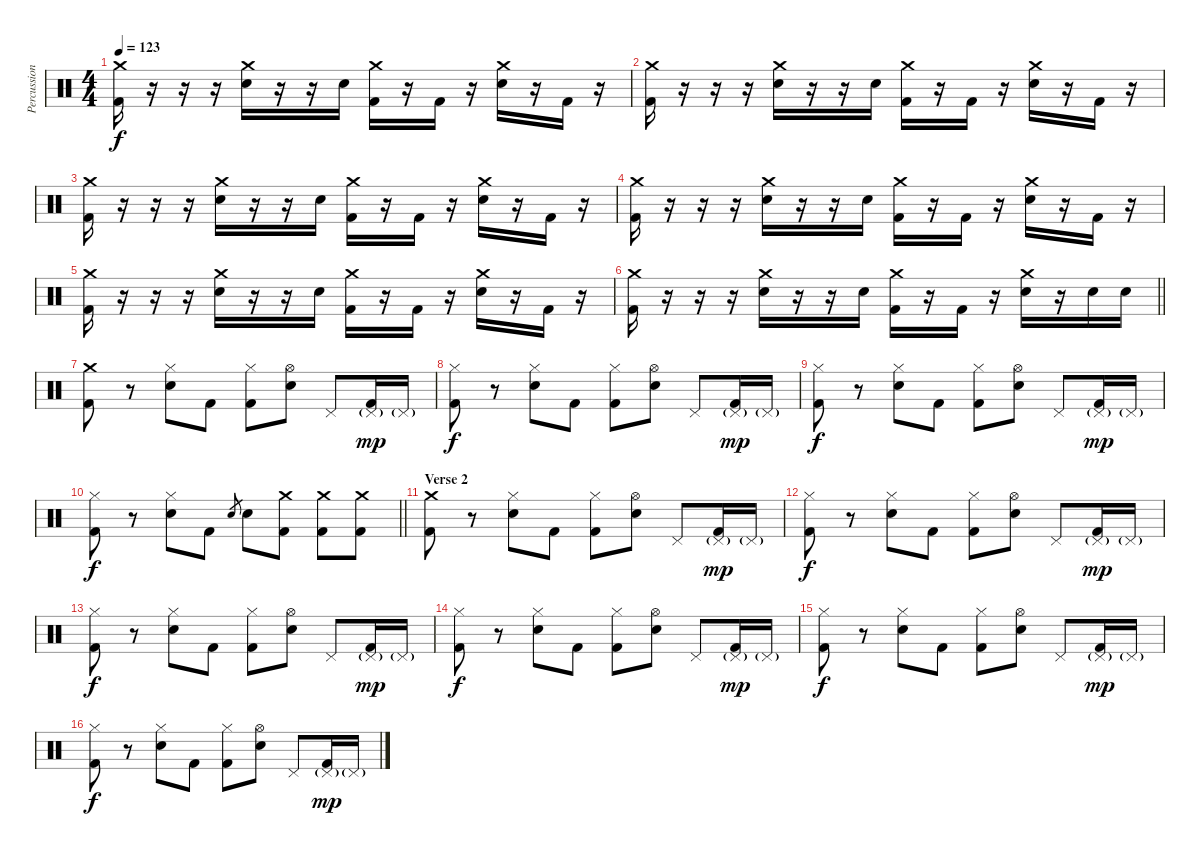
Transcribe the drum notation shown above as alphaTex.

\track ("Percussion" "Percussion") {instrument percussion}
\staff {score}
\articulation defaults
\ts (4 4)
\tempo 123
\clef neutral
\ks c
("Crash medium (hit)" "Kick (hit) 2").16{dy f} r.16 r.16 r.16 ("Crash medium (hit)" "Electric Snare (hit)").16 r.16 r.16 "Electric Snare (hit)".16 ("Crash medium (hit)" "Kick (hit) 2").16 r.16 "Kick (hit) 2".16 r.16 ("Crash medium (hit)" "Electric Snare (hit)").16 r.16 "Kick (hit) 2".16 r.16 |
("Crash medium (hit)" "Kick (hit) 2").16 r.16 r.16 r.16 ("Crash medium (hit)" "Electric Snare (hit)").16 r.16 r.16 "Electric Snare (hit)".16 ("Crash medium (hit)" "Kick (hit) 2").16 r.16 "Kick (hit) 2".16 r.16 ("Crash medium (hit)" "Electric Snare (hit)").16 r.16 "Kick (hit) 2".16 r.16 |
("Crash medium (hit)" "Kick (hit) 2").16 r.16 r.16 r.16 ("Crash medium (hit)" "Electric Snare (hit)").16 r.16 r.16 "Electric Snare (hit)".16 ("Crash medium (hit)" "Kick (hit) 2").16 r.16 "Kick (hit) 2".16 r.16 ("Crash medium (hit)" "Electric Snare (hit)").16 r.16 "Kick (hit) 2".16 r.16 |
("Crash medium (hit)" "Kick (hit) 2").16 r.16 r.16 r.16 ("Crash medium (hit)" "Electric Snare (hit)").16 r.16 r.16 "Electric Snare (hit)".16 ("Crash medium (hit)" "Kick (hit) 2").16 r.16 "Kick (hit) 2".16 r.16 ("Crash medium (hit)" "Electric Snare (hit)").16 r.16 "Kick (hit) 2".16 r.16 |
("Crash medium (hit)" "Kick (hit) 2").16 r.16 r.16 r.16 ("Crash medium (hit)" "Electric Snare (hit)").16 r.16 r.16 "Electric Snare (hit)".16 ("Crash medium (hit)" "Kick (hit) 2").16 r.16 "Kick (hit) 2".16 r.16 ("Crash medium (hit)" "Electric Snare (hit)").16 r.16 "Kick (hit) 2".16 r.16 |
\barLineRight lightlight
("Crash medium (hit)" "Kick (hit) 2").16 r.16 r.16 r.16 ("Crash medium (hit)" "Electric Snare (hit)").16 r.16 r.16 "Electric Snare (hit)".16 ("Crash medium (hit)" "Kick (hit) 2").16 r.16 "Kick (hit) 2".16 r.16 ("Crash medium (hit)" "Electric Snare (hit)").16 r.16 "Electric Snare (hit)".16 "Electric Snare (hit)".16 |
\section ("" "")
("Crash medium (hit)" "Kick (hit) 2").8 r.8 ("Hi-Hat (closed)" "Electric Snare (hit)").8 "Kick (hit) 2".8 ("Hi-Hat (closed)" "Kick (hit) 2").8 ("Hi-Hat (open)" "Electric Snare (hit)").8 "Pedal Hi-Hat (hit)".8 ("Pedal Hi-Hat (hit)"{g} "Kick (hit) 2").16{dy mp} "Pedal Hi-Hat (hit)"{g}.16 |
("Hi-Hat (closed)" "Kick (hit) 2").8{dy f} r.8 ("Hi-Hat (closed)" "Electric Snare (hit)").8 "Kick (hit) 2".8 ("Hi-Hat (closed)" "Kick (hit) 2").8 ("Hi-Hat (open)" "Electric Snare (hit)").8 "Pedal Hi-Hat (hit)".8 ("Pedal Hi-Hat (hit)"{g} "Kick (hit) 2").16{dy mp} "Pedal Hi-Hat (hit)"{g}.16 |
("Hi-Hat (closed)" "Kick (hit) 2").8{dy f} r.8 ("Hi-Hat (closed)" "Electric Snare (hit)").8 "Kick (hit) 2".8 ("Hi-Hat (closed)" "Kick (hit) 2").8 ("Hi-Hat (open)" "Electric Snare (hit)").8 "Pedal Hi-Hat (hit)".8 ("Pedal Hi-Hat (hit)"{g} "Kick (hit) 2").16{dy mp} "Pedal Hi-Hat (hit)"{g}.16 |
\barLineRight lightlight
("Hi-Hat (closed)" "Kick (hit) 2").8{dy f} r.8 ("Hi-Hat (closed)" "Electric Snare (hit)").8 "Kick (hit) 2".8 "Electric Snare (hit)".8{gr} "Electric Snare (hit)".8 ("Crash medium (hit)" "Kick (hit) 2").8 ("Crash medium (hit)" "Kick (hit) 2").8 ("Crash medium (hit)" "Kick (hit) 2").8 |
\section ("" "Verse 2")
("Crash medium (hit)" "Kick (hit) 2").8 r.8 ("Hi-Hat (closed)" "Electric Snare (hit)").8 "Kick (hit) 2".8 ("Hi-Hat (closed)" "Kick (hit) 2").8 ("Hi-Hat (open)" "Electric Snare (hit)").8 "Pedal Hi-Hat (hit)".8 ("Pedal Hi-Hat (hit)"{g} "Kick (hit) 2").16{dy mp} "Pedal Hi-Hat (hit)"{g}.16 |
("Hi-Hat (closed)" "Kick (hit) 2").8{dy f} r.8 ("Hi-Hat (closed)" "Electric Snare (hit)").8 "Kick (hit) 2".8 ("Hi-Hat (closed)" "Kick (hit) 2").8 ("Hi-Hat (open)" "Electric Snare (hit)").8 "Pedal Hi-Hat (hit)".8 ("Pedal Hi-Hat (hit)"{g} "Kick (hit) 2").16{dy mp} "Pedal Hi-Hat (hit)"{g}.16 |
("Hi-Hat (closed)" "Kick (hit) 2").8{dy f} r.8 ("Hi-Hat (closed)" "Electric Snare (hit)").8 "Kick (hit) 2".8 ("Hi-Hat (closed)" "Kick (hit) 2").8 ("Hi-Hat (open)" "Electric Snare (hit)").8 "Pedal Hi-Hat (hit)".8 ("Pedal Hi-Hat (hit)"{g} "Kick (hit) 2").16{dy mp} "Pedal Hi-Hat (hit)"{g}.16 |
("Hi-Hat (closed)" "Kick (hit) 2").8{dy f} r.8 ("Hi-Hat (closed)" "Electric Snare (hit)").8 "Kick (hit) 2".8 ("Hi-Hat (closed)" "Kick (hit) 2").8 ("Hi-Hat (open)" "Electric Snare (hit)").8 "Pedal Hi-Hat (hit)".8 ("Pedal Hi-Hat (hit)"{g} "Kick (hit) 2").16{dy mp} "Pedal Hi-Hat (hit)"{g}.16 |
("Hi-Hat (closed)" "Kick (hit) 2").8{dy f} r.8 ("Hi-Hat (closed)" "Electric Snare (hit)").8 "Kick (hit) 2".8 ("Hi-Hat (closed)" "Kick (hit) 2").8 ("Hi-Hat (open)" "Electric Snare (hit)").8 "Pedal Hi-Hat (hit)".8 ("Pedal Hi-Hat (hit)"{g} "Kick (hit) 2").16{dy mp} "Pedal Hi-Hat (hit)"{g}.16 |
("Hi-Hat (closed)" "Kick (hit) 2").8{dy f} r.8 ("Hi-Hat (closed)" "Electric Snare (hit)").8 "Kick (hit) 2".8 ("Hi-Hat (closed)" "Kick (hit) 2").8 ("Hi-Hat (open)" "Electric Snare (hit)").8 "Pedal Hi-Hat (hit)".8 ("Pedal Hi-Hat (hit)"{g} "Kick (hit) 2").16{dy mp} "Pedal Hi-Hat (hit)"{g}.16
